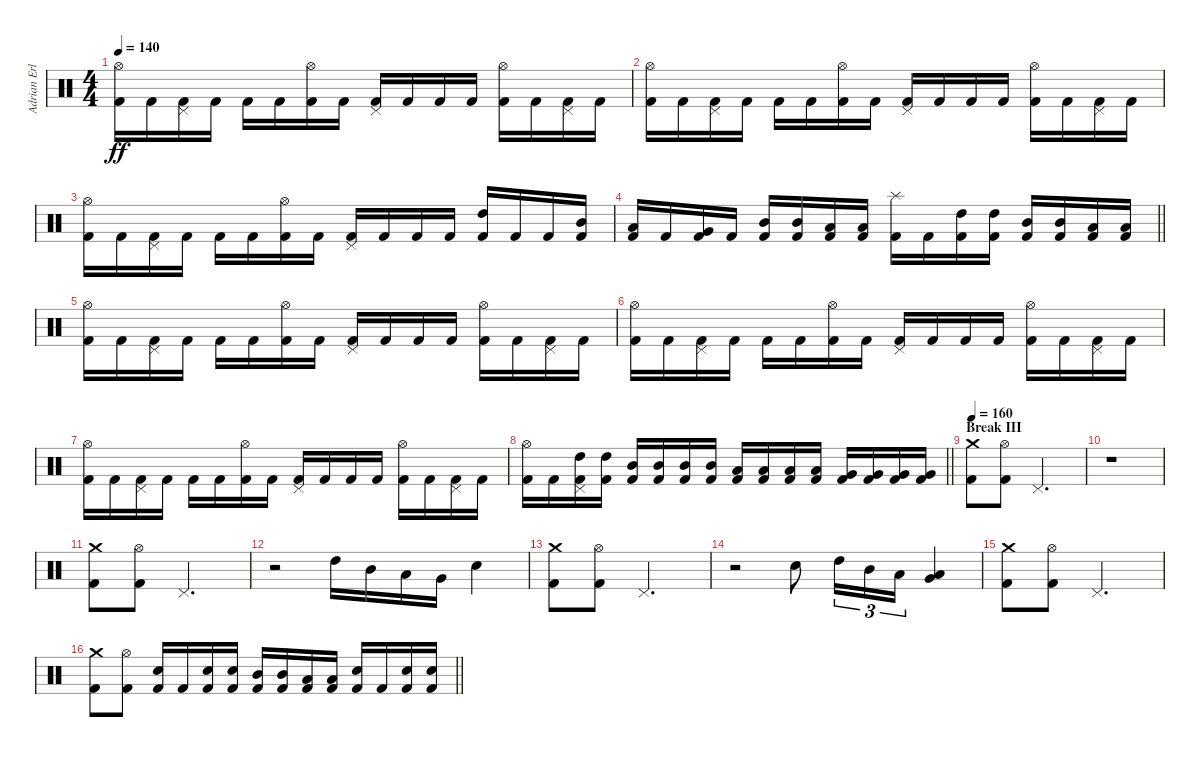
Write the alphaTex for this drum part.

\track ("Adrian Erlandsson" "Adrian Erl") {instrument percussion}
\staff {score}
\articulation defaults
\ts (4 4)
\tempo 140
\clef neutral
\ks c
("Kick (hit) 2" "Hi-Hat (open)").16{dy ff} "Kick (hit) 2".16 ("Kick (hit) 2" "Pedal Hi-Hat (hit)").16 "Kick (hit) 2".16 "Kick (hit) 2".16 "Kick (hit) 2".16 ("Kick (hit) 2" "Hi-Hat (open)").16 "Kick (hit) 2".16 ("Kick (hit) 2" "Pedal Hi-Hat (hit)").16 "Kick (hit) 2".16 "Kick (hit) 2".16 "Kick (hit) 2".16 ("Kick (hit) 2" "Hi-Hat (open)").16 "Kick (hit) 2".16 ("Kick (hit) 2" "Pedal Hi-Hat (hit)").16 "Kick (hit) 2".16 |
("Kick (hit) 2" "Hi-Hat (open)").16 "Kick (hit) 2".16 ("Kick (hit) 2" "Pedal Hi-Hat (hit)").16 "Kick (hit) 2".16 "Kick (hit) 2".16 "Kick (hit) 2".16 ("Kick (hit) 2" "Hi-Hat (open)").16 "Kick (hit) 2".16 ("Kick (hit) 2" "Pedal Hi-Hat (hit)").16 "Kick (hit) 2".16 "Kick (hit) 2".16 "Kick (hit) 2".16 ("Kick (hit) 2" "Hi-Hat (open)").16 "Kick (hit) 2".16 ("Kick (hit) 2" "Pedal Hi-Hat (hit)").16 "Kick (hit) 2".16 |
("Kick (hit) 2" "Hi-Hat (open)").16 "Kick (hit) 2".16 ("Kick (hit) 2" "Pedal Hi-Hat (hit)").16 "Kick (hit) 2".16 "Kick (hit) 2".16 "Kick (hit) 2".16 ("Kick (hit) 2" "Hi-Hat (open)").16 "Kick (hit) 2".16 ("Kick (hit) 2" "Pedal Hi-Hat (hit)").16 "Kick (hit) 2".16 "Kick (hit) 2".16 "Kick (hit) 2".16 ("Kick (hit) 2" "High Tom (hit)").16 "Kick (hit) 2".16 "Kick (hit) 2".16 ("Kick (hit) 2" "Mid Tom (hit)").16 |
\barLineRight lightlight
("Kick (hit) 2" "Low Tom (hit)").16 "Kick (hit) 2".16 ("Kick (hit) 2" "Very Low Tom (hit)").16 "Kick (hit) 2".16 ("Kick (hit) 2" "Mid Tom (hit)").16 ("Kick (hit) 2" "Mid Tom (hit)").16 ("Kick (hit) 2" "Low Tom (hit)").16 ("Kick (hit) 2" "Low Tom (hit)").16 ("Kick (hit) 2" "Splash (hit)").16 "Kick (hit) 2".16 ("Kick (hit) 2" "High Tom (hit)").16 ("Kick (hit) 2" "High Tom (hit)").16 ("Kick (hit) 2" "Mid Tom (hit)").16 ("Kick (hit) 2" "Mid Tom (hit)").16 ("Kick (hit) 2" "Low Tom (hit)").16 ("Kick (hit) 2" "Low Tom (hit)").16 |
("Kick (hit) 2" "Hi-Hat (open)").16 "Kick (hit) 2".16 ("Kick (hit) 2" "Pedal Hi-Hat (hit)").16 "Kick (hit) 2".16 "Kick (hit) 2".16 "Kick (hit) 2".16 ("Kick (hit) 2" "Hi-Hat (open)").16 "Kick (hit) 2".16 ("Kick (hit) 2" "Pedal Hi-Hat (hit)").16 "Kick (hit) 2".16 "Kick (hit) 2".16 "Kick (hit) 2".16 ("Kick (hit) 2" "Hi-Hat (open)").16 "Kick (hit) 2".16 ("Kick (hit) 2" "Pedal Hi-Hat (hit)").16 "Kick (hit) 2".16 |
("Kick (hit) 2" "Hi-Hat (open)").16 "Kick (hit) 2".16 ("Kick (hit) 2" "Pedal Hi-Hat (hit)").16 "Kick (hit) 2".16 "Kick (hit) 2".16 "Kick (hit) 2".16 ("Kick (hit) 2" "Hi-Hat (open)").16 "Kick (hit) 2".16 ("Kick (hit) 2" "Pedal Hi-Hat (hit)").16 "Kick (hit) 2".16 "Kick (hit) 2".16 "Kick (hit) 2".16 ("Kick (hit) 2" "Hi-Hat (open)").16 "Kick (hit) 2".16 ("Kick (hit) 2" "Pedal Hi-Hat (hit)").16 "Kick (hit) 2".16 |
("Kick (hit) 2" "Hi-Hat (open)").16 "Kick (hit) 2".16 ("Kick (hit) 2" "Pedal Hi-Hat (hit)").16 "Kick (hit) 2".16 "Kick (hit) 2".16 "Kick (hit) 2".16 ("Kick (hit) 2" "Hi-Hat (open)").16 "Kick (hit) 2".16 ("Kick (hit) 2" "Pedal Hi-Hat (hit)").16 "Kick (hit) 2".16 "Kick (hit) 2".16 "Kick (hit) 2".16 ("Kick (hit) 2" "Hi-Hat (open)").16 "Kick (hit) 2".16 ("Kick (hit) 2" "Pedal Hi-Hat (hit)").16 "Kick (hit) 2".16 |
\barLineRight lightlight
("Kick (hit) 2" "Hi-Hat (open)").16 "Kick (hit) 2".16 ("Kick (hit) 2" "High Tom (hit)" "Pedal Hi-Hat (hit)").16 ("Kick (hit) 2" "High Tom (hit)").16 ("Kick (hit) 2" "Mid Tom (hit)").16 ("Kick (hit) 2" "Mid Tom (hit)").16 ("Kick (hit) 2" "Mid Tom (hit)").16 ("Kick (hit) 2" "Mid Tom (hit)").16 ("Kick (hit) 2" "Low Tom (hit)").16 ("Kick (hit) 2" "Low Tom (hit)").16 ("Kick (hit) 2" "Low Tom (hit)").16 ("Kick (hit) 2" "Low Tom (hit)").16 ("Kick (hit) 2" "Very Low Tom (hit)").16 ("Kick (hit) 2" "Very Low Tom (hit)").16 ("Kick (hit) 2" "Very Low Tom (hit)").16 ("Kick (hit) 2" "Very Low Tom (hit)").16 |
\section ("" "Break III")
\tempo 160
("Kick (hit) 2" "Crash medium (hit)").8 ("Kick (hit) 2" "Hi-Hat (open)").8 "Pedal Hi-Hat (hit)".2{d} |
r.1 |
("Kick (hit) 2" "Crash medium (hit)").8 ("Kick (hit) 2" "Hi-Hat (open)").8 "Pedal Hi-Hat (hit)".2{d} |
r.2 "High Tom (hit)".16 "Mid Tom (hit)".16 "Low Tom (hit)".16 "Very Low Tom (hit)".16 "Electric Snare (hit)".4 |
("Kick (hit) 2" "Crash medium (hit)").8 ("Kick (hit) 2" "Hi-Hat (open)").8 "Pedal Hi-Hat (hit)".2{d} |
r.2 "Electric Snare (hit)".8 "High Tom (hit)".16{tu (3 2)} "Mid Tom (hit)".16{tu (3 2)} "Low Tom (hit)".16{tu (3 2)} ("Low Tom (hit)" "Very Low Tom (hit)").4 |
("Kick (hit) 2" "Crash medium (hit)").8 ("Kick (hit) 2" "Hi-Hat (open)").8 "Pedal Hi-Hat (hit)".2{d} |
\barLineRight lightlight
("Kick (hit) 2" "Crash medium (hit)").8 ("Kick (hit) 2" "Hi-Hat (open)").8 ("Kick (hit) 2" "Electric Snare (hit)").16 "Kick (hit) 2".16 ("Kick (hit) 2" "Electric Snare (hit)").16 ("Kick (hit) 2" "Electric Snare (hit)").16 ("Kick (hit) 2" "Mid Tom (hit)").16 ("Kick (hit) 2" "Mid Tom (hit)").16 ("Kick (hit) 2" "Low Tom (hit)").16 ("Kick (hit) 2" "Low Tom (hit)").16 ("Kick (hit) 2" "Electric Snare (hit)").16 "Kick (hit) 2".16 ("Kick (hit) 2" "Electric Snare (hit)").16 ("Kick (hit) 2" "Electric Snare (hit)").16
